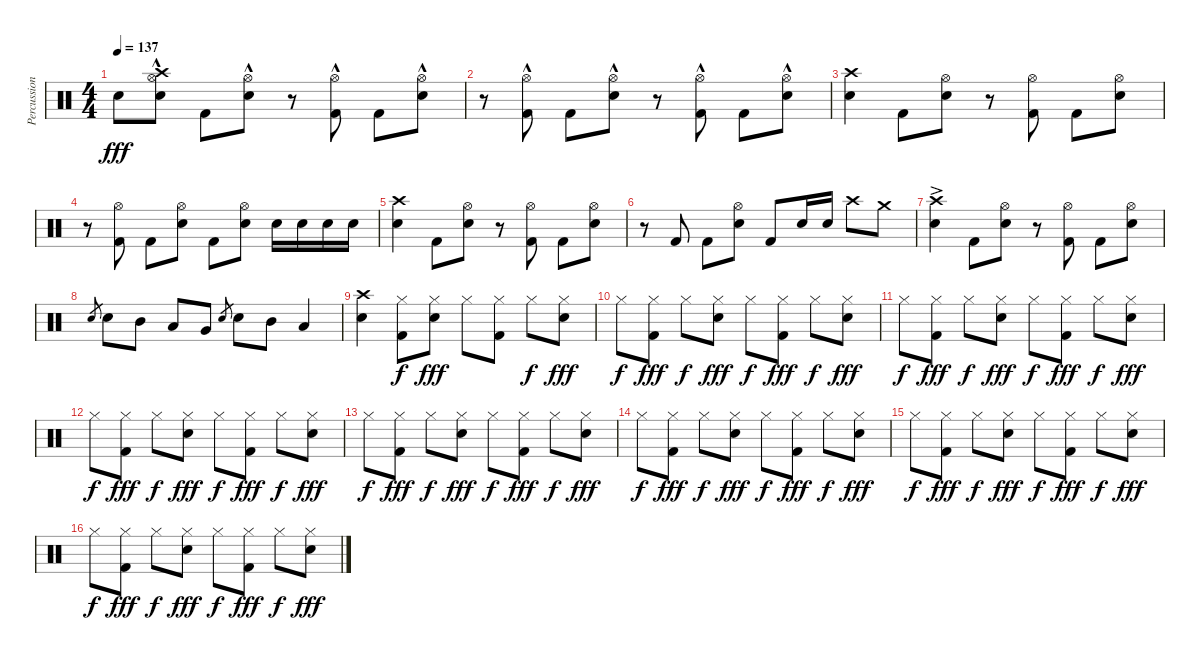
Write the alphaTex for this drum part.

\track ("Percussion" "Percussion") {solo instrument percussion}
\staff {score}
\articulation defaults
\ts (4 4)
\tempo 137
\clef neutral
\ks c "Electric Snare (hit)".8{dy fff}
("Hi-Hat (open)" "Crash high (hit)"{hac} "Electric Snare (hit)").8 "Kick (hit) 2".8 ("Hi-Hat (open)"{hac} "Electric Snare (hit)").8 r.8 ("Kick (hit) 2" "Hi-Hat (open)"{hac}).8 "Kick (hit) 2".8 ("Electric Snare (hit)" "Hi-Hat (open)"{hac}).8 |
r.8 ("Kick (hit) 2" "Hi-Hat (open)"{hac}).8 "Kick (hit) 2".8 ("Electric Snare (hit)" "Hi-Hat (open)"{hac}).8 r.8 ("Kick (hit) 2" "Hi-Hat (open)"{hac}).8 "Kick (hit) 2".8 ("Electric Snare (hit)" "Hi-Hat (open)"{hac}).8 |
("Crash high (hit)" "Electric Snare (hit)").4 "Kick (hit) 2".8 ("Electric Snare (hit)" "Hi-Hat (open)").8 r.8 ("Kick (hit) 2" "Hi-Hat (open)").8 "Kick (hit) 2".8 ("Electric Snare (hit)" "Hi-Hat (open)").8 |
r.8 ("Kick (hit) 2" "Hi-Hat (open)").8 "Kick (hit) 2".8 ("Electric Snare (hit)" "Hi-Hat (open)").8 "Kick (hit) 2".8 ("Electric Snare (hit)" "Hi-Hat (open)").8 "Electric Snare (hit)".16 "Electric Snare (hit)".16 "Electric Snare (hit)".16 "Electric Snare (hit)".16 |
("Crash high (hit)" "Electric Snare (hit)").4 "Kick (hit) 2".8 ("Electric Snare (hit)" "Hi-Hat (open)").8 r.8 ("Kick (hit) 2" "Hi-Hat (open)").8 "Kick (hit) 2".8 ("Electric Snare (hit)" "Hi-Hat (open)").8 |
r.8 "Kick (hit) 2".8 "Kick (hit) 2".8 ("Electric Snare (hit)" "Hi-Hat (open)").8 "Kick (hit) 2".8 "Electric Snare (hit)".16 "Electric Snare (hit)".16 "Crash high (hit)".8 "Crash medium (hit)".8 |
("Crash high (hit)"{ac} "Electric Snare (hit)"{ac}).4 "Kick (hit) 2".8 ("Electric Snare (hit)" "Hi-Hat (open)").8 r.8 ("Kick (hit) 2" "Hi-Hat (open)").8 "Kick (hit) 2".8 ("Electric Snare (hit)" "Hi-Hat (open)").8 |
"Electric Snare (hit)".8{gr} "Electric Snare (hit)".8 "Mid Tom (hit)".8 "Low Tom (hit)".8 "Very Low Tom (hit)".8 "Electric Snare (hit)".8{gr} "Electric Snare (hit)".8 "Mid Tom (hit)".8 "Low Tom (hit)".4 |
("Crash high (hit)" "Electric Snare (hit)").4 ("Hi-Hat (closed)" "Kick (hit) 2").8{dy f} ("Hi-Hat (closed)" "Electric Snare (hit)").8{dy fff} "Hi-Hat (closed)".8 ("Hi-Hat (closed)" "Kick (hit) 2").8 "Hi-Hat (closed)".8{dy f} ("Hi-Hat (closed)" "Electric Snare (hit)").8{dy fff} |
"Hi-Hat (closed)".8{dy f} ("Hi-Hat (closed)" "Kick (hit) 2").8{dy fff} "Hi-Hat (closed)".8{dy f} ("Hi-Hat (closed)" "Electric Snare (hit)").8{dy fff} "Hi-Hat (closed)".8{dy f} ("Hi-Hat (closed)" "Kick (hit) 2").8{dy fff} "Hi-Hat (closed)".8{dy f} ("Hi-Hat (closed)" "Electric Snare (hit)").8{dy fff} |
"Hi-Hat (closed)".8{dy f} ("Hi-Hat (closed)" "Kick (hit) 2").8{dy fff} "Hi-Hat (closed)".8{dy f} ("Hi-Hat (closed)" "Electric Snare (hit)").8{dy fff} "Hi-Hat (closed)".8{dy f} ("Hi-Hat (closed)" "Kick (hit) 2").8{dy fff} "Hi-Hat (closed)".8{dy f} ("Hi-Hat (closed)" "Electric Snare (hit)").8{dy fff} |
"Hi-Hat (closed)".8{dy f} ("Hi-Hat (closed)" "Kick (hit) 2").8{dy fff} "Hi-Hat (closed)".8{dy f} ("Hi-Hat (closed)" "Electric Snare (hit)").8{dy fff} "Hi-Hat (closed)".8{dy f} ("Hi-Hat (closed)" "Kick (hit) 2").8{dy fff} "Hi-Hat (closed)".8{dy f} ("Hi-Hat (closed)" "Electric Snare (hit)").8{dy fff} |
"Hi-Hat (closed)".8{dy f} ("Hi-Hat (closed)" "Kick (hit) 2").8{dy fff} "Hi-Hat (closed)".8{dy f} ("Hi-Hat (closed)" "Electric Snare (hit)").8{dy fff} "Hi-Hat (closed)".8{dy f} ("Hi-Hat (closed)" "Kick (hit) 2").8{dy fff} "Hi-Hat (closed)".8{dy f} ("Hi-Hat (closed)" "Electric Snare (hit)").8{dy fff} |
"Hi-Hat (closed)".8{dy f} ("Hi-Hat (closed)" "Kick (hit) 2").8{dy fff} "Hi-Hat (closed)".8{dy f} ("Hi-Hat (closed)" "Electric Snare (hit)").8{dy fff} "Hi-Hat (closed)".8{dy f} ("Hi-Hat (closed)" "Kick (hit) 2").8{dy fff} "Hi-Hat (closed)".8{dy f} ("Hi-Hat (closed)" "Electric Snare (hit)").8{dy fff} |
"Hi-Hat (closed)".8{dy f} ("Hi-Hat (closed)" "Kick (hit) 2").8{dy fff} "Hi-Hat (closed)".8{dy f} ("Hi-Hat (closed)" "Electric Snare (hit)").8{dy fff} "Hi-Hat (closed)".8{dy f} ("Hi-Hat (closed)" "Kick (hit) 2").8{dy fff} "Hi-Hat (closed)".8{dy f} ("Hi-Hat (closed)" "Electric Snare (hit)").8{dy fff} |
"Hi-Hat (closed)".8{dy f} ("Hi-Hat (closed)" "Kick (hit) 2").8{dy fff} "Hi-Hat (closed)".8{dy f} ("Hi-Hat (closed)" "Electric Snare (hit)").8{dy fff} "Hi-Hat (closed)".8{dy f} ("Hi-Hat (closed)" "Kick (hit) 2").8{dy fff} "Hi-Hat (closed)".8{dy f} ("Hi-Hat (closed)" "Electric Snare (hit)").8{dy fff}
